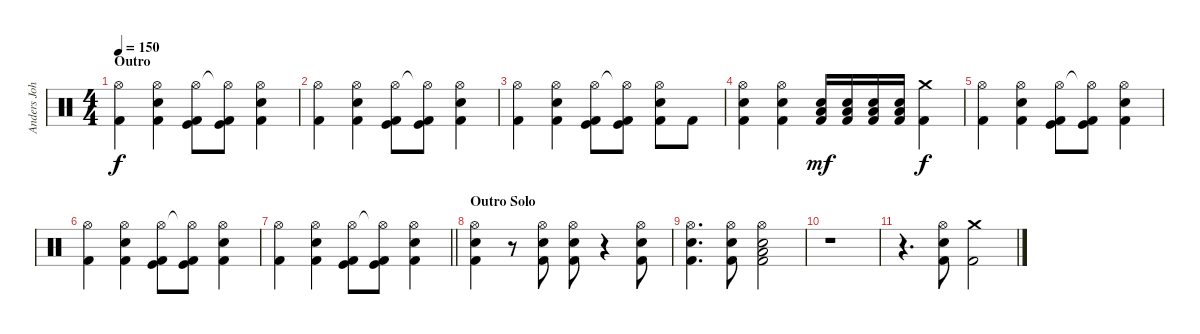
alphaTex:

\track ("Anders Johansson" "Anders Joh") {instrument percussion}
\staff {score}
\articulation defaults
\ts (4 4)
\section ("" "Outro")
\tempo 150
\clef neutral
\ks c
("Hi-Hat (open)" "Kick (hit) 2").4{dy f} ("Hi-Hat (open)" "Electric Snare (hit)" "Kick (hit) 2").4 ("Hi-Hat (open)" "Kick (hit)" "Kick (hit) 2").8 ("Hi-Hat (open)"{t} "Kick (hit)" "Kick (hit) 2").8 ("Hi-Hat (open)" "Electric Snare (hit)" "Kick (hit) 2").4 |
("Hi-Hat (open)" "Kick (hit) 2").4 ("Hi-Hat (open)" "Electric Snare (hit)" "Kick (hit) 2").4 ("Hi-Hat (open)" "Kick (hit)" "Kick (hit) 2").8 ("Hi-Hat (open)"{t} "Kick (hit)" "Kick (hit) 2").8 ("Hi-Hat (open)" "Electric Snare (hit)" "Kick (hit) 2").4 |
("Hi-Hat (open)" "Kick (hit) 2").4 ("Hi-Hat (open)" "Electric Snare (hit)" "Kick (hit) 2").4 ("Hi-Hat (open)" "Kick (hit)" "Kick (hit) 2").8 ("Hi-Hat (open)"{t} "Kick (hit)" "Kick (hit) 2").8 ("Hi-Hat (open)" "Electric Snare (hit)" "Kick (hit) 2").8 "Kick (hit) 2".8 |
("Hi-Hat (open)" "Electric Snare (hit)" "Kick (hit) 2").4 ("Hi-Hat (open)" "Electric Snare (hit)" "Kick (hit) 2").4 ("Low Tom (hit)" "Electric Snare (hit)" "Kick (hit) 2").16{dy mf} ("Low Tom (hit)" "Electric Snare (hit)" "Kick (hit) 2").16 ("Low Tom (hit)" "Electric Snare (hit)" "Kick (hit) 2").16 ("Low Tom (hit)" "Electric Snare (hit)" "Kick (hit) 2").16 ("Crash medium (hit)" "Kick (hit) 2").4{dy f} |
("Hi-Hat (open)" "Kick (hit) 2").4 ("Hi-Hat (open)" "Electric Snare (hit)" "Kick (hit) 2").4 ("Hi-Hat (open)" "Kick (hit)" "Kick (hit) 2").8 ("Hi-Hat (open)"{t} "Kick (hit)" "Kick (hit) 2").8 ("Hi-Hat (open)" "Electric Snare (hit)" "Kick (hit) 2").4 |
("Hi-Hat (open)" "Kick (hit) 2").4 ("Hi-Hat (open)" "Electric Snare (hit)" "Kick (hit) 2").4 ("Hi-Hat (open)" "Kick (hit)" "Kick (hit) 2").8 ("Hi-Hat (open)"{t} "Kick (hit)" "Kick (hit) 2").8 ("Hi-Hat (open)" "Electric Snare (hit)" "Kick (hit) 2").4 |
\barLineRight lightlight
("Hi-Hat (open)" "Kick (hit) 2").4 ("Hi-Hat (open)" "Electric Snare (hit)" "Kick (hit) 2").4 ("Hi-Hat (open)" "Kick (hit)" "Kick (hit) 2").8 ("Hi-Hat (open)"{t} "Kick (hit)" "Kick (hit) 2").8 ("Hi-Hat (open)" "Electric Snare (hit)" "Kick (hit) 2").4 |
\section ("" "Outro Solo")
("Hi-Hat (open)" "Electric Snare (hit)" "Kick (hit) 2").4 r.8 ("Hi-Hat (open)" "Electric Snare (hit)" "Kick (hit) 2").8 ("Hi-Hat (open)" "Electric Snare (hit)" "Kick (hit) 2").8 r.4 ("Hi-Hat (open)" "Electric Snare (hit)" "Kick (hit) 2").8 |
("Hi-Hat (open)" "Electric Snare (hit)" "Kick (hit) 2").4{d} ("Hi-Hat (open)" "Electric Snare (hit)" "Kick (hit) 2").8 ("Hi-Hat (open)" "Low Tom (hit)" "Electric Snare (hit)" "Kick (hit) 2").2 |
r.1 |
r.4{d} ("Hi-Hat (open)" "Electric Snare (hit)" "Kick (hit) 2").8 ("Crash medium (hit)" "Kick (hit) 2").2
